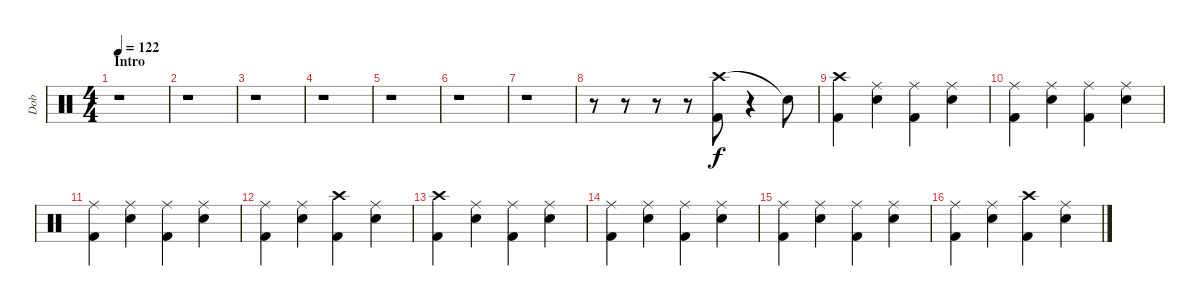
\track ("Dob" "Dob") {instrument percussion}
\staff {score}
\articulation defaults
\ts (4 4)
\section ("" "Intro")
\tempo 122
\clef neutral
\ks c
r.1{dy f} |
r.1 |
r.1 |
r.1 |
r.1 |
r.1 |
r.1 |
r.8 r.8 r.8 r.8 ("Crash high (hit)" "Kick (hit) 2").8 r.4 "Snare (hit)"{t}.8 |
("Crash high (hit)" "Kick (hit) 2").4 ("Ride (middle)" "Electric Snare (hit)").4 ("Ride (middle)" "Kick (hit) 2").4 ("Ride (middle)" "Electric Snare (hit)").4 |
("Ride (middle)" "Kick (hit) 2").4 ("Ride (middle)" "Electric Snare (hit)").4 ("Ride (middle)" "Kick (hit) 2").4 ("Ride (middle)" "Electric Snare (hit)").4 |
("Ride (middle)" "Kick (hit) 2").4 ("Ride (middle)" "Electric Snare (hit)").4 ("Ride (middle)" "Kick (hit) 2").4 ("Ride (middle)" "Electric Snare (hit)").4 |
("Ride (middle)" "Kick (hit) 2").4 ("Ride (middle)" "Electric Snare (hit)").4 ("Crash high (hit)" "Kick (hit) 2").4 ("Ride (middle)" "Electric Snare (hit)").4 |
("Crash high (hit)" "Kick (hit) 2").4 ("Ride (middle)" "Electric Snare (hit)").4 ("Ride (middle)" "Kick (hit) 2").4 ("Ride (middle)" "Electric Snare (hit)").4 |
("Ride (middle)" "Kick (hit) 2").4 ("Ride (middle)" "Electric Snare (hit)").4 ("Ride (middle)" "Kick (hit) 2").4 ("Ride (middle)" "Electric Snare (hit)").4 |
("Ride (middle)" "Kick (hit) 2").4 ("Ride (middle)" "Electric Snare (hit)").4 ("Ride (middle)" "Kick (hit) 2").4 ("Ride (middle)" "Electric Snare (hit)").4 |
("Ride (middle)" "Kick (hit) 2").4 ("Ride (middle)" "Electric Snare (hit)").4 ("Crash high (hit)" "Kick (hit) 2").4 ("Ride (middle)" "Electric Snare (hit)").4
